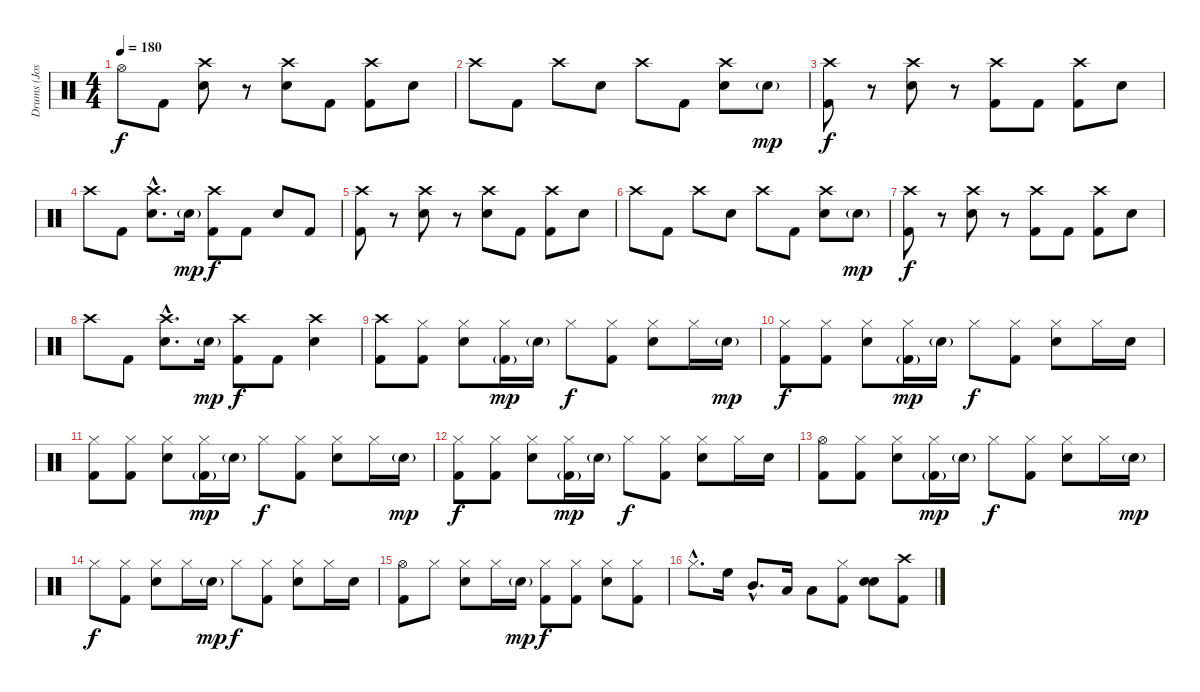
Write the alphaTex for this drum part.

\track ("Drums (Jose Pasilas II)" "Drums (Jos") {instrument percussion}
\staff {score}
\articulation defaults
\ts (4 4)
\tempo 180
\clef neutral
\ks c "Hi-Hat (open)".8{dy f} "Kick (hit) 2".8
("Snare (hit) 2" "Crash high (hit)").8 r.8 ("Snare (hit) 2" "Crash high (hit)").8 "Kick (hit) 2".8 ("Crash high (hit)" "Kick (hit) 2").8 "Snare (hit) 2".8 |
"Crash high (hit)".8 "Kick (hit) 2".8 "Crash high (hit)".8 "Snare (hit) 2".8 "Crash high (hit)".8 "Kick (hit) 2".8 ("Crash high (hit)" "Snare (hit) 2").8 "Snare (hit) 2"{g}.8{dy mp} |
("Kick (hit) 2" "Crash high (hit)").8{dy f} r.8 ("Crash high (hit)" "Snare (hit) 2").8 r.8 ("Kick (hit) 2" "Crash high (hit)").8 "Kick (hit) 2".8 ("Crash high (hit)" "Kick (hit) 2").8 "Snare (hit) 2".8 |
"Crash high (hit)".8 "Kick (hit) 2".8 ("Snare (hit) 2"{hac} "Crash high (hit)"{hac}).8{d} "Snare (hit) 2"{g}.16{dy mp} ("Kick (hit) 2" "Crash high (hit)").8{dy f} "Kick (hit) 2".8 "Snare (hit) 2".8 "Kick (hit) 2".8 |
("Crash high (hit)" "Kick (hit) 2").8 r.8 ("Snare (hit) 2" "Crash high (hit)").8 r.8 ("Snare (hit) 2" "Crash high (hit)").8 "Kick (hit) 2".8 ("Crash high (hit)" "Kick (hit) 2").8 "Snare (hit) 2".8 |
"Crash high (hit)".8 "Kick (hit) 2".8 "Crash high (hit)".8 "Snare (hit) 2".8 "Crash high (hit)".8 "Kick (hit) 2".8 ("Crash high (hit)" "Snare (hit) 2").8 "Snare (hit) 2"{g}.8{dy mp} |
("Kick (hit) 2" "Crash high (hit)").8{dy f} r.8 ("Crash high (hit)" "Snare (hit) 2").8 r.8 ("Kick (hit) 2" "Crash high (hit)").8 "Kick (hit) 2".8 ("Crash high (hit)" "Kick (hit) 2").8 "Snare (hit) 2".8 |
"Crash high (hit)".8 "Kick (hit) 2".8 ("Snare (hit) 2"{hac} "Crash high (hit)"{hac}).8{d} "Snare (hit) 2"{g}.16{dy mp} ("Kick (hit) 2" "Crash high (hit)").8{dy f} "Kick (hit) 2".8 ("Snare (hit) 2" "Crash high (hit)").4 |
("Kick (hit) 2" "Crash high (hit)").8 ("Hi-Hat (closed)" "Kick (hit) 2").8 ("Hi-Hat (closed)" "Snare (hit) 2").8 ("Hi-Hat (closed)" "Kick (hit) 2"{g}).16{dy mp} "Snare (hit) 2"{g}.16 "Hi-Hat (closed)".8{dy f} ("Hi-Hat (closed)" "Kick (hit) 2").8 ("Snare (hit) 2" "Hi-Hat (closed)").8 "Hi-Hat (closed)".16 "Snare (hit) 2"{g}.16{dy mp} |
("Kick (hit) 2" "Hi-Hat (closed)").8{dy f} ("Hi-Hat (closed)" "Kick (hit) 2").8 ("Hi-Hat (closed)" "Snare (hit) 2").8 ("Hi-Hat (closed)" "Kick (hit) 2"{g}).16{dy mp} "Snare (hit) 2"{g}.16 "Hi-Hat (closed)".8{dy f} ("Hi-Hat (closed)" "Kick (hit) 2").8 ("Snare (hit) 2" "Hi-Hat (closed)").8 "Hi-Hat (closed)".16 "Snare (hit) 2".16 |
("Kick (hit) 2" "Hi-Hat (closed)").8 ("Hi-Hat (closed)" "Kick (hit) 2").8 ("Hi-Hat (closed)" "Snare (hit) 2").8 ("Hi-Hat (closed)" "Kick (hit) 2"{g}).16{dy mp} "Snare (hit) 2"{g}.16 "Hi-Hat (closed)".8{dy f} ("Hi-Hat (closed)" "Kick (hit) 2").8 ("Snare (hit) 2" "Hi-Hat (closed)").8 "Hi-Hat (closed)".16 "Snare (hit) 2"{g}.16{dy mp} |
("Kick (hit) 2" "Hi-Hat (closed)").8{dy f} ("Hi-Hat (closed)" "Kick (hit) 2").8 ("Hi-Hat (closed)" "Snare (hit) 2").8 ("Hi-Hat (closed)" "Kick (hit) 2"{g}).16{dy mp} "Snare (hit) 2"{g}.16 "Hi-Hat (closed)".8{dy f} ("Hi-Hat (closed)" "Kick (hit) 2").8 ("Snare (hit) 2" "Hi-Hat (closed)").8 "Hi-Hat (closed)".16 "Snare (hit) 2".16 |
("Kick (hit) 2" "Hi-Hat (open)").8 ("Hi-Hat (closed)" "Kick (hit) 2").8 ("Hi-Hat (closed)" "Snare (hit) 2").8 ("Hi-Hat (closed)" "Kick (hit) 2"{g}).16{dy mp} "Snare (hit) 2"{g}.16 "Hi-Hat (closed)".8{dy f} ("Hi-Hat (closed)" "Kick (hit) 2").8 ("Snare (hit) 2" "Hi-Hat (closed)").8 "Hi-Hat (closed)".16 "Snare (hit) 2"{g}.16{dy mp} |
"Hi-Hat (closed)".8{dy f} ("Kick (hit) 2" "Hi-Hat (closed)").8 ("Snare (hit) 2" "Hi-Hat (closed)").8 "Hi-Hat (closed)".16 "Snare (hit) 2"{g}.16{dy mp} "Hi-Hat (closed)".8{dy f} ("Hi-Hat (closed)" "Kick (hit) 2").8 ("Snare (hit) 2" "Hi-Hat (closed)").8 "Hi-Hat (closed)".16 "Snare (hit) 2".16 |
("Hi-Hat (open)" "Kick (hit) 2").8 "Hi-Hat (closed)".8 ("Hi-Hat (closed)" "Snare (hit) 2").8 "Hi-Hat (closed)".16 "Snare (hit) 2"{g}.16{dy mp} ("Kick (hit) 2" "Hi-Hat (closed)").8{dy f} ("Hi-Hat (closed)" "Kick (hit) 2").8 ("Snare (hit) 2" "Hi-Hat (closed)").8 ("Kick (hit) 2" "Hi-Hat (closed)").8 |
"Hi-Hat (closed)"{hac}.8{d} "High Floor Tom (hit)".16 "Mid Tom (hit)"{hac}.8{d} "Low Tom (hit)".16 "Low Floor Tom (hit)".8 ("Kick (hit) 2" "Hi-Hat (closed)").8 ("Snare (hit) 2" "Snare (hit) 2").8{bd 240} ("Crash high (hit)" "Kick (hit) 2").8
